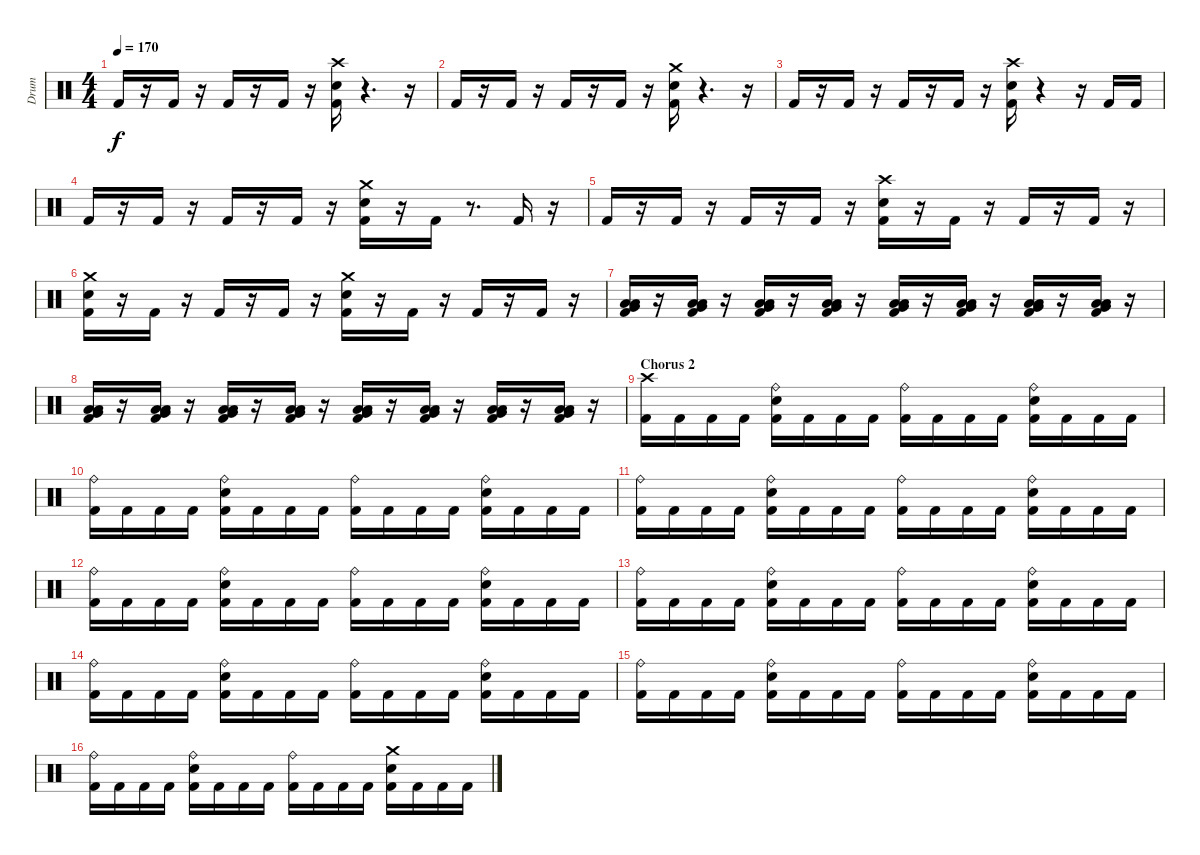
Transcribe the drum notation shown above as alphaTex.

\track ("Drum" "Drum") {instrument percussion}
\staff {score}
\articulation defaults
\ts (4 4)
\tempo 170
\clef neutral
\ks c "Kick (hit) 2".16{dy f}
r.16 "Kick (hit) 2".16 r.16 "Kick (hit) 2".16 r.16 "Kick (hit) 2".16 r.16 ("Electric Snare (hit)" "Kick (hit) 2" "Crash high (hit)").16 r.4{d} r.16 |
"Kick (hit) 2".16 r.16 "Kick (hit) 2".16 r.16 "Kick (hit) 2".16 r.16 "Kick (hit) 2".16 r.16 ("Electric Snare (hit)" "Kick (hit) 2" "Crash medium (hit)").16 r.4{d} r.16 |
"Kick (hit) 2".16 r.16 "Kick (hit) 2".16 r.16 "Kick (hit) 2".16 r.16 "Kick (hit) 2".16 r.16 ("Electric Snare (hit)" "Kick (hit) 2" "Crash high (hit)").16 r.4 r.16 "Kick (hit) 2".16 "Kick (hit) 2".16 |
"Kick (hit) 2".16 r.16 "Kick (hit) 2".16 r.16 "Kick (hit) 2".16 r.16 "Kick (hit) 2".16 r.16 ("Electric Snare (hit)" "Kick (hit) 2" "Crash medium (hit)").16 r.16 "Kick (hit) 2".16 r.8{d} "Kick (hit) 2".16 r.16 |
"Kick (hit) 2".16 r.16 "Kick (hit) 2".16 r.16 "Kick (hit) 2".16 r.16 "Kick (hit) 2".16 r.16 ("Kick (hit) 2" "Electric Snare (hit)" "Crash high (hit)").16 r.16 "Kick (hit) 2".16 r.16 "Kick (hit) 2".16 r.16 "Kick (hit) 2".16 r.16 |
("Kick (hit) 2" "Electric Snare (hit)" "Crash medium (hit)").16 r.16 "Kick (hit) 2".16 r.16 "Kick (hit) 2".16 r.16 "Kick (hit) 2".16 r.16 ("Electric Snare (hit)" "Kick (hit) 2" "Crash medium (hit)").16 r.16 "Kick (hit) 2".16 r.16 "Kick (hit) 2".16 r.16 "Kick (hit) 2".16 r.16 |
("Kick (hit) 2" "Low Floor Tom (hit)" "Very Low Tom (hit)" "Low Tom (hit)").16 r.16 ("Kick (hit) 2" "Very Low Tom (hit)" "Low Tom (hit)" "Low Floor Tom (hit)").16 r.16 ("Kick (hit) 2" "Low Tom (hit)" "Very Low Tom (hit)" "Low Floor Tom (hit)").16 r.16 ("Kick (hit) 2" "Very Low Tom (hit)" "Low Tom (hit)" "Low Floor Tom (hit)").16 r.16 ("Kick (hit) 2" "Low Floor Tom (hit)" "Low Tom (hit)" "Very Low Tom (hit)").16 r.16 ("Kick (hit) 2" "Low Tom (hit)" "Low Floor Tom (hit)" "Very Low Tom (hit)").16 r.16 ("Kick (hit) 2" "Low Floor Tom (hit)" "Very Low Tom (hit)" "Low Tom (hit)").16 r.16 ("Kick (hit) 2" "Low Tom (hit)" "Very Low Tom (hit)" "Low Floor Tom (hit)").16 r.16 |
("Kick (hit) 2" "Low Tom (hit)" "Very Low Tom (hit)" "Low Floor Tom (hit)").16 r.16 ("Kick (hit) 2" "Very Low Tom (hit)" "Low Floor Tom (hit)" "Low Tom (hit)").16 r.16 ("Kick (hit) 2" "Low Floor Tom (hit)" "Low Tom (hit)" "Very Low Tom (hit)").16 r.16 ("Kick (hit) 2" "Very Low Tom (hit)" "Low Floor Tom (hit)" "Low Tom (hit)").16 r.16 ("Kick (hit) 2" "Low Tom (hit)" "Low Floor Tom (hit)" "Very Low Tom (hit)").16 r.16 ("Kick (hit) 2" "Very Low Tom (hit)" "Low Tom (hit)" "Low Floor Tom (hit)").16 r.16 ("Kick (hit) 2" "Low Floor Tom (hit)" "Very Low Tom (hit)" "Low Tom (hit)").16 r.16 ("Kick (hit) 2" "Low Tom (hit)" "Low Floor Tom (hit)" "Very Low Tom (hit)").16 r.16 |
\section ("" "Chorus 2")
("Kick (hit) 2" "Crash high (hit)").16 "Kick (hit) 2".16 "Kick (hit) 2".16 "Kick (hit) 2".16 ("Electric Snare (hit)" "Kick (hit) 2" "Ride (bell)").16 "Kick (hit) 2".16 "Kick (hit) 2".16 "Kick (hit) 2".16 ("Kick (hit) 2" "Ride (bell)").16 "Kick (hit) 2".16 "Kick (hit) 2".16 "Kick (hit) 2".16 ("Kick (hit) 2" "Electric Snare (hit)" "Ride (bell)").16 "Kick (hit) 2".16 "Kick (hit) 2".16 "Kick (hit) 2".16 |
("Kick (hit) 2" "Ride (bell)").16 "Kick (hit) 2".16 "Kick (hit) 2".16 "Kick (hit) 2".16 ("Kick (hit) 2" "Electric Snare (hit)" "Ride (bell)").16 "Kick (hit) 2".16 "Kick (hit) 2".16 "Kick (hit) 2".16 ("Kick (hit) 2" "Ride (bell)").16 "Kick (hit) 2".16 "Kick (hit) 2".16 "Kick (hit) 2".16 ("Kick (hit) 2" "Electric Snare (hit)" "Ride (bell)").16 "Kick (hit) 2".16 "Kick (hit) 2".16 "Kick (hit) 2".16 |
("Kick (hit) 2" "Ride (bell)").16 "Kick (hit) 2".16 "Kick (hit) 2".16 "Kick (hit) 2".16 ("Kick (hit) 2" "Electric Snare (hit)" "Ride (bell)").16 "Kick (hit) 2".16 "Kick (hit) 2".16 "Kick (hit) 2".16 ("Kick (hit) 2" "Ride (bell)").16 "Kick (hit) 2".16 "Kick (hit) 2".16 "Kick (hit) 2".16 ("Electric Snare (hit)" "Kick (hit) 2" "Ride (bell)").16 "Kick (hit) 2".16 "Kick (hit) 2".16 "Kick (hit) 2".16 |
("Kick (hit) 2" "Ride (bell)").16 "Kick (hit) 2".16 "Kick (hit) 2".16 "Kick (hit) 2".16 ("Kick (hit) 2" "Electric Snare (hit)" "Ride (bell)").16 "Kick (hit) 2".16 "Kick (hit) 2".16 "Kick (hit) 2".16 ("Kick (hit) 2" "Ride (bell)").16 "Kick (hit) 2".16 "Kick (hit) 2".16 "Kick (hit) 2".16 ("Kick (hit) 2" "Electric Snare (hit)" "Ride (bell)").16 "Kick (hit) 2".16 "Kick (hit) 2".16 "Kick (hit) 2".16 |
("Kick (hit) 2" "Ride (bell)").16 "Kick (hit) 2".16 "Kick (hit) 2".16 "Kick (hit) 2".16 ("Kick (hit) 2" "Electric Snare (hit)" "Ride (bell)").16 "Kick (hit) 2".16 "Kick (hit) 2".16 "Kick (hit) 2".16 ("Kick (hit) 2" "Ride (bell)").16 "Kick (hit) 2".16 "Kick (hit) 2".16 "Kick (hit) 2".16 ("Electric Snare (hit)" "Kick (hit) 2" "Ride (bell)").16 "Kick (hit) 2".16 "Kick (hit) 2".16 "Kick (hit) 2".16 |
("Kick (hit) 2" "Ride (bell)").16 "Kick (hit) 2".16 "Kick (hit) 2".16 "Kick (hit) 2".16 ("Kick (hit) 2" "Electric Snare (hit)" "Ride (bell)").16 "Kick (hit) 2".16 "Kick (hit) 2".16 "Kick (hit) 2".16 ("Kick (hit) 2" "Ride (bell)").16 "Kick (hit) 2".16 "Kick (hit) 2".16 "Kick (hit) 2".16 ("Kick (hit) 2" "Electric Snare (hit)" "Ride (bell)").16 "Kick (hit) 2".16 "Kick (hit) 2".16 "Kick (hit) 2".16 |
("Kick (hit) 2" "Ride (bell)").16 "Kick (hit) 2".16 "Kick (hit) 2".16 "Kick (hit) 2".16 ("Kick (hit) 2" "Electric Snare (hit)" "Ride (bell)").16 "Kick (hit) 2".16 "Kick (hit) 2".16 "Kick (hit) 2".16 ("Kick (hit) 2" "Ride (bell)").16 "Kick (hit) 2".16 "Kick (hit) 2".16 "Kick (hit) 2".16 ("Electric Snare (hit)" "Kick (hit) 2" "Ride (bell)").16 "Kick (hit) 2".16 "Kick (hit) 2".16 "Kick (hit) 2".16 |
("Kick (hit) 2" "Ride (bell)").16 "Kick (hit) 2".16 "Kick (hit) 2".16 "Kick (hit) 2".16 ("Kick (hit) 2" "Electric Snare (hit)" "Ride (bell)").16 "Kick (hit) 2".16 "Kick (hit) 2".16 "Kick (hit) 2".16 ("Kick (hit) 2" "Ride (bell)").16 "Kick (hit) 2".16 "Kick (hit) 2".16 "Kick (hit) 2".16 ("Kick (hit) 2" "Electric Snare (hit)" "Crash medium (hit)").16 "Kick (hit) 2".16 "Kick (hit) 2".16 "Kick (hit) 2".16
